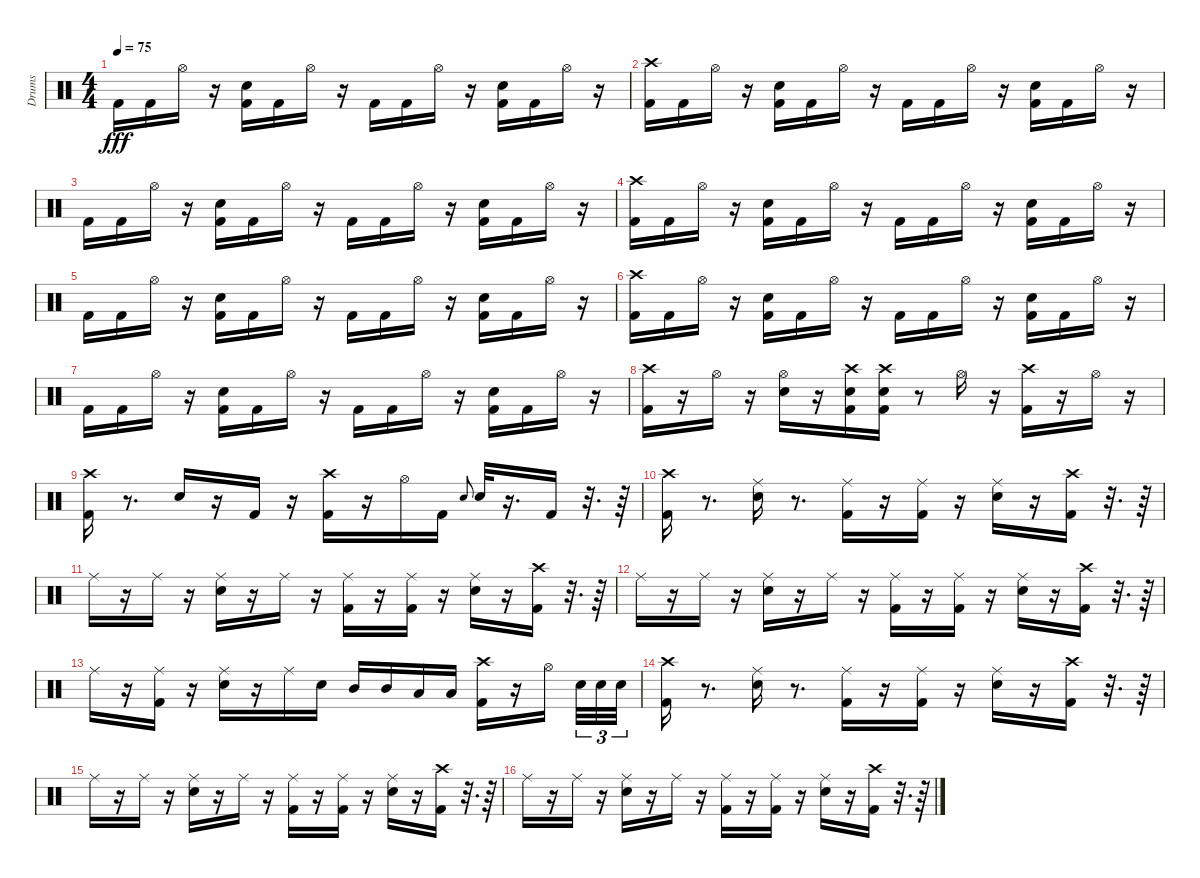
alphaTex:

\track ("Drums" "Drums") {instrument percussion}
\staff {score}
\articulation defaults
\ts (4 4)
\tempo 75
\clef neutral
\ks c "Kick (hit) 2".16{dy fff} "Kick (hit) 2".16 "Hi-Hat (open)".16
r.16 ("Kick (hit) 2" "Electric Snare (hit)").16 "Kick (hit) 2".16 "Hi-Hat (open)".16 r.16 "Kick (hit) 2".16 "Kick (hit) 2".16 "Hi-Hat (open)".16 r.16 ("Kick (hit) 2" "Electric Snare (hit)").16 "Kick (hit) 2".16 "Hi-Hat (open)".16 r.16 |
("Kick (hit) 2" "Crash high (hit)").16 "Kick (hit) 2".16 "Hi-Hat (open)".16 r.16 ("Kick (hit) 2" "Electric Snare (hit)").16 "Kick (hit) 2".16 "Hi-Hat (open)".16 r.16 "Kick (hit) 2".16 "Kick (hit) 2".16 "Hi-Hat (open)".16 r.16 ("Kick (hit) 2" "Electric Snare (hit)").16 "Kick (hit) 2".16 "Hi-Hat (open)".16 r.16 |
"Kick (hit) 2".16 "Kick (hit) 2".16 "Hi-Hat (open)".16 r.16 ("Electric Snare (hit)" "Kick (hit) 2").16 "Kick (hit) 2".16 "Hi-Hat (open)".16 r.16 "Kick (hit) 2".16 "Kick (hit) 2".16 "Hi-Hat (open)".16 r.16 ("Electric Snare (hit)" "Kick (hit) 2").16 "Kick (hit) 2".16 "Hi-Hat (open)".16 r.16 |
("Kick (hit) 2" "Crash high (hit)").16 "Kick (hit) 2".16 "Hi-Hat (open)".16 r.16 ("Kick (hit) 2" "Electric Snare (hit)").16 "Kick (hit) 2".16 "Hi-Hat (open)".16 r.16 "Kick (hit) 2".16 "Kick (hit) 2".16 "Hi-Hat (open)".16 r.16 ("Kick (hit) 2" "Electric Snare (hit)").16 "Kick (hit) 2".16 "Hi-Hat (open)".16 r.16 |
"Kick (hit) 2".16 "Kick (hit) 2".16 "Hi-Hat (open)".16 r.16 ("Electric Snare (hit)" "Kick (hit) 2").16 "Kick (hit) 2".16 "Hi-Hat (open)".16 r.16 "Kick (hit) 2".16 "Kick (hit) 2".16 "Hi-Hat (open)".16 r.16 ("Electric Snare (hit)" "Kick (hit) 2").16 "Kick (hit) 2".16 "Hi-Hat (open)".16 r.16 |
("Crash high (hit)" "Kick (hit) 2").16 "Kick (hit) 2".16 "Hi-Hat (open)".16 r.16 ("Electric Snare (hit)" "Kick (hit) 2").16 "Kick (hit) 2".16 "Hi-Hat (open)".16 r.16 "Kick (hit) 2".16 "Kick (hit) 2".16 "Hi-Hat (open)".16 r.16 ("Electric Snare (hit)" "Kick (hit) 2").16 "Kick (hit) 2".16 "Hi-Hat (open)".16 r.16 |
"Kick (hit) 2".16 "Kick (hit) 2".16 "Hi-Hat (open)".16 r.16 ("Kick (hit) 2" "Electric Snare (hit)").16 "Kick (hit) 2".16 "Hi-Hat (open)".16 r.16 "Kick (hit) 2".16 "Kick (hit) 2".16 "Hi-Hat (open)".16 r.16 ("Kick (hit) 2" "Electric Snare (hit)").16 "Kick (hit) 2".16 "Hi-Hat (open)".16 r.16 |
("Crash high (hit)" "Kick (hit) 2").16 r.16 "Hi-Hat (open)".16 r.16 ("Electric Snare (hit)" "Hi-Hat (open)").16 r.16 ("Crash high (hit)" "Electric Snare (hit)" "Kick (hit) 2").16 ("Crash high (hit)" "Electric Snare (hit)" "Kick (hit) 2").16 r.8 "Hi-Hat (open)".16 r.16 ("Kick (hit) 2" "Crash high (hit)").16 r.16 "Hi-Hat (open)".16 r.16 |
("Crash high (hit)" "Kick (hit) 2").16 r.8{d} "Electric Snare (hit)".16 r.16 "Kick (hit) 2".16 r.16 ("Crash high (hit)" "Kick (hit) 2").16 r.16 "Hi-Hat (open)".16 "Kick (hit) 2".16 "Electric Snare (hit)".8{gr onbeat} "Electric Snare (hit)".32 r.16{d} "Kick (hit) 2".16 r.32{d} r.64 |
("Crash high (hit)" "Kick (hit) 2").16 r.8{d} ("Ride (middle)" "Electric Snare (hit)").16 r.8{d} ("Ride (middle)" "Kick (hit) 2").16 r.16 ("Ride (middle)" "Kick (hit) 2").16 r.16 ("Ride (middle)" "Electric Snare (hit)").16 r.16 ("Kick (hit) 2" "Crash high (hit)").16 r.32{d} r.64 |
"Ride (middle)".16 r.16 "Ride (middle)".16 r.16 ("Electric Snare (hit)" "Ride (middle)").16 r.16 "Ride (middle)".16 r.16 ("Kick (hit) 2" "Ride (middle)").16 r.16 ("Kick (hit) 2" "Ride (middle)").16 r.16 ("Electric Snare (hit)" "Ride (middle)").16 r.16 ("Crash high (hit)" "Kick (hit) 2").16 r.32{d} r.64 |
"Ride (middle)".16 r.16 "Ride (middle)".16 r.16 ("Ride (middle)" "Electric Snare (hit)").16 r.16 "Ride (middle)".16 r.16 ("Ride (middle)" "Kick (hit) 2").16 r.16 ("Ride (middle)" "Kick (hit) 2").16 r.16 ("Ride (middle)" "Electric Snare (hit)").16 r.16 ("Crash high (hit)" "Kick (hit) 2").16 r.32{d} r.64 |
"Ride (middle)".16 r.16 ("Ride (middle)" "Kick (hit) 2").16 r.16 ("Ride (middle)" "Electric Snare (hit)").16 r.16 "Ride (middle)".16 "Electric Snare (hit)".16 "Mid Tom (hit)".16 "Mid Tom (hit)".16 "Low Tom (hit)".16 "Low Tom (hit)".16 ("Crash high (hit)" "Kick (hit) 2").16 r.16 "Hi-Hat (open)".16{beam splitsecondary} "Electric Snare (hit)".32{tu (3 2)} "Electric Snare (hit)".32{tu (3 2)} "Electric Snare (hit)".32{tu (3 2)} |
("Kick (hit) 2" "Crash high (hit)").16 r.8{d} ("Electric Snare (hit)" "Ride (middle)").16 r.8{d} ("Kick (hit) 2" "Ride (middle)").16 r.16 ("Kick (hit) 2" "Ride (middle)").16 r.16 ("Electric Snare (hit)" "Ride (middle)").16 r.16 ("Crash high (hit)" "Kick (hit) 2").16 r.32{d} r.64 |
"Ride (middle)".16 r.16 "Ride (middle)".16 r.16 ("Ride (middle)" "Electric Snare (hit)").16 r.16 "Ride (middle)".16 r.16 ("Ride (middle)" "Kick (hit) 2").16 r.16 ("Ride (middle)" "Kick (hit) 2").16 r.16 ("Ride (middle)" "Electric Snare (hit)").16 r.16 ("Kick (hit) 2" "Crash high (hit)").16 r.32{d} r.64 |
"Ride (middle)".16 r.16 "Ride (middle)".16 r.16 ("Electric Snare (hit)" "Ride (middle)").16 r.16 "Ride (middle)".16 r.16 ("Kick (hit) 2" "Ride (middle)").16 r.16 ("Kick (hit) 2" "Ride (middle)").16 r.16 ("Electric Snare (hit)" "Ride (middle)").16 r.16 ("Kick (hit) 2" "Crash high (hit)").16 r.32{d} r.64
